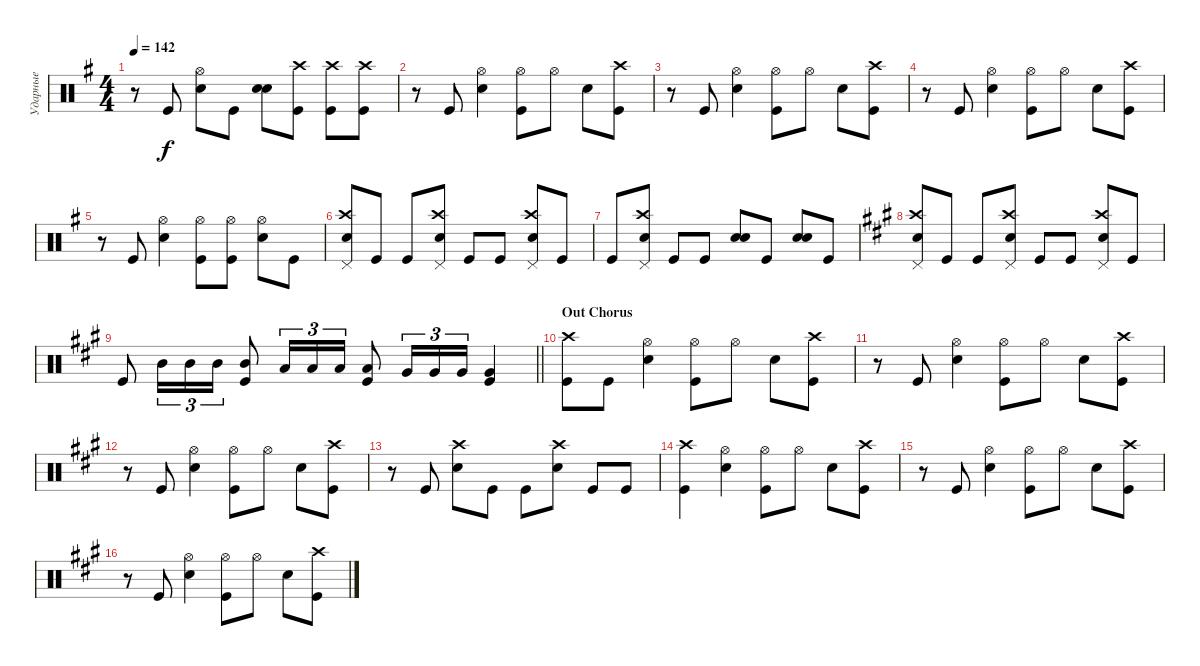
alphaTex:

\track ("Ударные" "Ударные") {instrument percussion}
\staff {score}
\articulation defaults
\ts (4 4)
\tempo 142
\clef neutral
\ks eminor
r.8{dy f} "Kick (hit)".8 ("Snare (hit) 2" "Hi-Hat (open)").8 "Kick (hit)".8 ("Snare (hit) 2" "Snare (hit) 2").8{bd 480} ("Crash high (hit)" "Kick (hit)").8 ("Crash high (hit)" "Kick (hit)").8 ("Kick (hit)" "Crash high (hit)").8 |
r.8 "Kick (hit)".8 ("Snare (hit) 2" "Hi-Hat (open)").4 ("Kick (hit)" "Hi-Hat (open)").8 "Hi-Hat (open)".8 "Snare (hit) 2".8 ("Kick (hit)" "Crash high (hit)").8 |
r.8 "Kick (hit)".8 ("Snare (hit) 2" "Hi-Hat (open)").4 ("Kick (hit)" "Hi-Hat (open)").8 "Hi-Hat (open)".8 "Snare (hit) 2".8 ("Kick (hit)" "Crash high (hit)").8 |
r.8 "Kick (hit)".8 ("Snare (hit) 2" "Hi-Hat (open)").4 ("Kick (hit)" "Hi-Hat (open)").8 "Hi-Hat (open)".8 "Snare (hit) 2".8 ("Kick (hit)" "Crash high (hit)").8 |
r.8 "Kick (hit)".8 ("Snare (hit) 2" "Hi-Hat (open)").4 ("Kick (hit)" "Hi-Hat (open)").8 ("Kick (hit)" "Hi-Hat (open)").8 ("Snare (hit) 2" "Hi-Hat (open)").8 "Kick (hit)".8 |
("Snare (hit) 2" "Crash high (hit)" "Pedal Hi-Hat (hit)").8 "Kick (hit)".8 "Kick (hit)".8 ("Snare (hit) 2" "Crash high (hit)" "Pedal Hi-Hat (hit)").8 "Kick (hit)".8 "Kick (hit)".8 ("Snare (hit) 2" "Crash high (hit)" "Pedal Hi-Hat (hit)").8 "Kick (hit)".8 |
"Kick (hit)".8 ("Snare (hit) 2" "Crash high (hit)" "Pedal Hi-Hat (hit)").8 "Kick (hit)".8 "Kick (hit)".8 ("Snare (hit) 2" "Snare (hit) 2").8{bd 480} "Kick (hit)".8 ("Snare (hit) 2" "Snare (hit) 2").8{bd 480} "Kick (hit)".8 |
\ks f#minor
("Snare (hit) 2" "Crash high (hit)" "Pedal Hi-Hat (hit)").8 "Kick (hit)".8 "Kick (hit)".8 ("Snare (hit) 2" "Crash high (hit)" "Pedal Hi-Hat (hit)").8 "Kick (hit)".8 "Kick (hit)".8 ("Snare (hit) 2" "Crash high (hit)" "Pedal Hi-Hat (hit)").8 "Kick (hit)".8 |
\barLineRight lightlight "Kick (hit)".8 "Mid Tom (hit)".16{tu (3 2)} "Mid Tom (hit)".16{tu (3 2)} "Mid Tom (hit)".16{tu (3 2)}
("Mid Tom (hit)" "Kick (hit)").8 "Low Tom (hit)".16{tu (3 2)} "Low Tom (hit)".16{tu (3 2)} "Low Tom (hit)".16{tu (3 2)} ("Kick (hit)" "Low Tom (hit)").8 "Very Low Tom (hit)".16{tu (3 2)} "Very Low Tom (hit)".16{tu (3 2)} "Very Low Tom (hit)".16{tu (3 2)} ("Very Low Tom (hit)" "Kick (hit)").4 |
\section ("" "Out Chorus")
("Kick (hit)" "Crash high (hit)").8 "Kick (hit)".8 ("Snare (hit) 2" "Hi-Hat (open)").4 ("Kick (hit)" "Hi-Hat (open)").8 "Hi-Hat (open)".8 "Snare (hit) 2".8 ("Kick (hit)" "Crash high (hit)").8 |
r.8 "Kick (hit)".8 ("Snare (hit) 2" "Hi-Hat (open)").4 ("Kick (hit)" "Hi-Hat (open)").8 "Hi-Hat (open)".8 "Snare (hit) 2".8 ("Kick (hit)" "Crash high (hit)").8 |
r.8 "Kick (hit)".8 ("Snare (hit) 2" "Hi-Hat (open)").4 ("Kick (hit)" "Hi-Hat (open)").8 "Hi-Hat (open)".8 "Snare (hit) 2".8 ("Kick (hit)" "Crash high (hit)").8 |
r.8 "Kick (hit)".8 ("Snare (hit) 2" "Crash high (hit)").8 "Kick (hit)".8 "Kick (hit)".8 ("Snare (hit) 2" "Crash high (hit)").8 "Kick (hit)".8 "Kick (hit)".8 |
("Kick (hit)" "Crash high (hit)").4 ("Snare (hit) 2" "Hi-Hat (open)").4 ("Kick (hit)" "Hi-Hat (open)").8 "Hi-Hat (open)".8 "Snare (hit) 2".8 ("Kick (hit)" "Crash high (hit)").8 |
r.8 "Kick (hit)".8 ("Snare (hit) 2" "Hi-Hat (open)").4 ("Kick (hit)" "Hi-Hat (open)").8 "Hi-Hat (open)".8 "Snare (hit) 2".8 ("Kick (hit)" "Crash high (hit)").8 |
r.8 "Kick (hit)".8 ("Snare (hit) 2" "Hi-Hat (open)").4 ("Kick (hit)" "Hi-Hat (open)").8 "Hi-Hat (open)".8 "Snare (hit) 2".8 ("Kick (hit)" "Crash high (hit)").8
